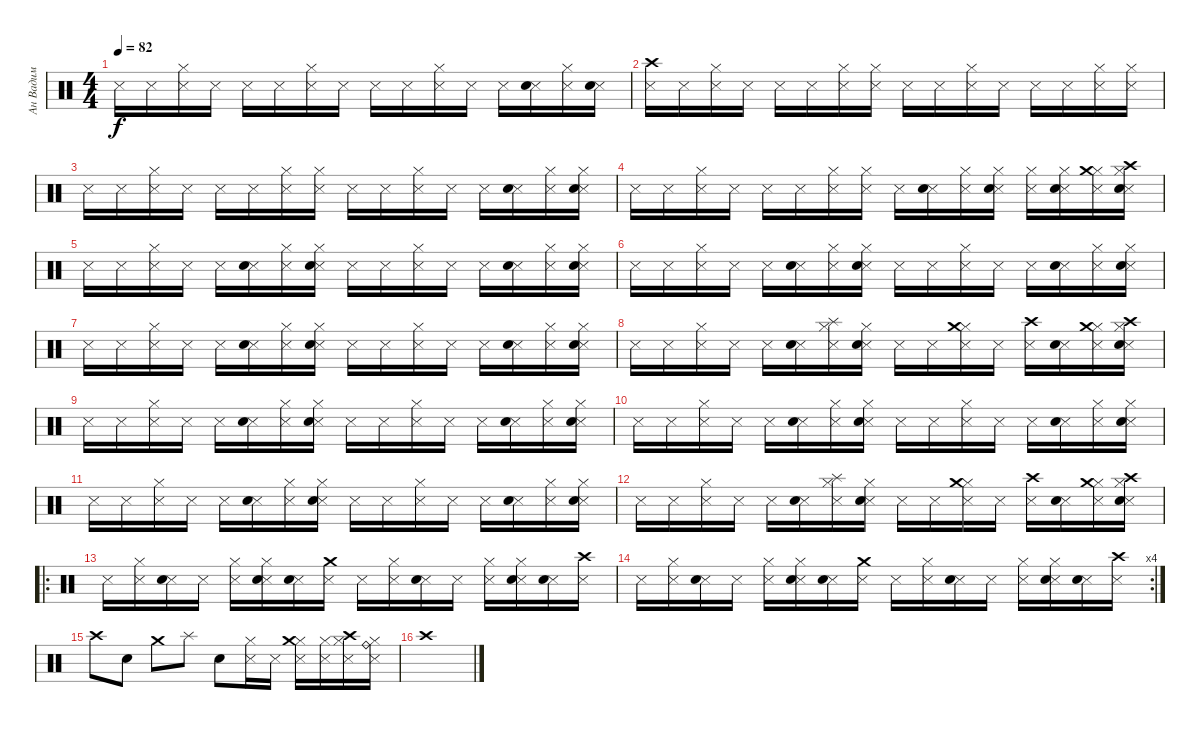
\track ("Ан Вадим" "Ан Вадим") {instrument percussion}
\staff {score}
\articulation defaults
\ts (4 4)
\tempo 82
\clef neutral
\ks c "Snare (side stick) 3".16{dy f} "Snare (side stick) 3".16
("Snare (side stick) 3" "Hi-Hat (closed)").16 "Snare (side stick) 3".16 "Snare (side stick) 3".16 "Snare (side stick) 3".16 ("Snare (side stick) 3" "Hi-Hat (closed)").16 "Snare (side stick) 3".16 "Snare (side stick) 3".16 "Snare (side stick) 3".16 ("Snare (side stick) 3" "Hi-Hat (closed)").16 "Snare (side stick) 3".16 "Snare (side stick) 3".16 ("Snare (side stick) 3" "Snare (hit) 2").16 ("Snare (side stick) 3" "Hi-Hat (closed)").16 ("Snare (side stick) 3" "Snare (hit) 2").16 |
("Snare (side stick) 3" "Crash high (hit)").16 "Snare (side stick) 3".16 ("Snare (side stick) 3" "Hi-Hat (closed)").16 "Snare (side stick) 3".16 "Snare (side stick) 3".16 "Snare (side stick) 3".16 ("Snare (side stick) 3" "Hi-Hat (closed)").16 ("Snare (side stick) 3" "Hi-Hat (closed)").16 "Snare (side stick) 3".16 "Snare (side stick) 3".16 ("Snare (side stick) 3" "Hi-Hat (closed)").16 "Snare (side stick) 3".16 "Snare (side stick) 3".16 "Snare (side stick) 3".16 ("Snare (side stick) 3" "Hi-Hat (closed)").16 ("Snare (side stick) 3" "Hi-Hat (closed)").16 |
"Snare (side stick) 3".16 "Snare (side stick) 3".16 ("Snare (side stick) 3" "Hi-Hat (closed)").16 "Snare (side stick) 3".16 "Snare (side stick) 3".16 "Snare (side stick) 3".16 ("Snare (side stick) 3" "Hi-Hat (closed)").16 ("Snare (side stick) 3" "Hi-Hat (closed)").16 "Snare (side stick) 3".16 "Snare (side stick) 3".16 ("Snare (side stick) 3" "Hi-Hat (closed)").16 "Snare (side stick) 3".16 "Snare (side stick) 3".16 ("Snare (side stick) 3" "Snare (hit) 2").16 ("Snare (side stick) 3" "Hi-Hat (closed)").16 ("Snare (side stick) 3" "Hi-Hat (closed)" "Snare (hit) 2").16 |
"Snare (side stick) 3".16 "Snare (side stick) 3".16 ("Snare (side stick) 3" "Hi-Hat (closed)").16 "Snare (side stick) 3".16 "Snare (side stick) 3".16 "Snare (side stick) 3".16 ("Snare (side stick) 3" "Hi-Hat (closed)").16 ("Snare (side stick) 3" "Hi-Hat (closed)").16 "Snare (side stick) 3".16 ("Snare (side stick) 3" "Snare (hit) 2").16 ("Snare (side stick) 3" "Hi-Hat (closed)").16 ("Snare (side stick) 3" "Hi-Hat (closed)" "Snare (hit) 2").16 ("Snare (side stick) 3" "Hi-Hat (closed)").16 ("Snare (side stick) 3" "Hi-Hat (closed)" "Snare (hit) 2").16 ("Snare (side stick) 3" "Hi-Hat (closed)" "Crash medium (hit)").16 ("Snare (side stick) 3" "Hi-Hat (closed)" "Snare (hit) 2" "Crash high (hit)").16 |
"Snare (side stick) 3".16 "Snare (side stick) 3".16 ("Snare (side stick) 3" "Hi-Hat (closed)").16 "Snare (side stick) 3".16 "Snare (side stick) 3".16 ("Snare (side stick) 3" "Snare (hit) 2").16 ("Snare (side stick) 3" "Hi-Hat (closed)").16 ("Snare (side stick) 3" "Hi-Hat (closed)" "Snare (hit) 2").16 "Snare (side stick) 3".16 "Snare (side stick) 3".16 ("Snare (side stick) 3" "Hi-Hat (closed)").16 "Snare (side stick) 3".16 "Snare (side stick) 3".16 ("Snare (side stick) 3" "Snare (hit) 2").16 ("Snare (side stick) 3" "Hi-Hat (closed)").16 ("Snare (side stick) 3" "Hi-Hat (closed)" "Snare (hit) 2").16 |
"Snare (side stick) 3".16 "Snare (side stick) 3".16 ("Snare (side stick) 3" "Hi-Hat (closed)").16 "Snare (side stick) 3".16 "Snare (side stick) 3".16 ("Snare (side stick) 3" "Snare (hit) 2").16 ("Snare (side stick) 3" "Hi-Hat (closed)").16 ("Snare (side stick) 3" "Hi-Hat (closed)" "Snare (hit) 2").16 "Snare (side stick) 3".16 "Snare (side stick) 3".16 ("Snare (side stick) 3" "Hi-Hat (closed)").16 "Snare (side stick) 3".16 "Snare (side stick) 3".16 ("Snare (side stick) 3" "Snare (hit) 2").16 ("Snare (side stick) 3" "Hi-Hat (closed)").16 ("Snare (side stick) 3" "Hi-Hat (closed)" "Snare (hit) 2").16 |
"Snare (side stick) 3".16 "Snare (side stick) 3".16 ("Snare (side stick) 3" "Hi-Hat (closed)").16 "Snare (side stick) 3".16 "Snare (side stick) 3".16 ("Snare (side stick) 3" "Snare (hit) 2").16 ("Snare (side stick) 3" "Hi-Hat (closed)").16 ("Snare (side stick) 3" "Hi-Hat (closed)" "Snare (hit) 2").16 "Snare (side stick) 3".16 "Snare (side stick) 3".16 ("Snare (side stick) 3" "Hi-Hat (closed)").16 "Snare (side stick) 3".16 "Snare (side stick) 3".16 ("Snare (side stick) 3" "Snare (hit) 2").16 ("Snare (side stick) 3" "Hi-Hat (closed)").16 ("Snare (side stick) 3" "Hi-Hat (closed)" "Snare (hit) 2").16 |
"Snare (side stick) 3".16 "Snare (side stick) 3".16 ("Snare (side stick) 3" "Hi-Hat (closed)").16 "Snare (side stick) 3".16 "Snare (side stick) 3".16 ("Snare (side stick) 3" "Snare (hit) 2").16 ("Snare (side stick) 3" "Hi-Hat (closed)" "Splash (hit)").16 ("Snare (side stick) 3" "Hi-Hat (closed)" "Snare (hit) 2").16 "Snare (side stick) 3".16 "Snare (side stick) 3".16 ("Snare (side stick) 3" "Hi-Hat (closed)" "Crash medium (hit)").16 "Snare (side stick) 3".16 ("Snare (side stick) 3" "Crash high (hit)").16 ("Snare (side stick) 3" "Snare (hit) 2").16 ("Snare (side stick) 3" "Hi-Hat (closed)" "Crash medium (hit)").16 ("Snare (side stick) 3" "Hi-Hat (closed)" "Snare (hit) 2" "Crash high (hit)").16 |
"Snare (side stick) 3".16 "Snare (side stick) 3".16 ("Snare (side stick) 3" "Hi-Hat (closed)").16 "Snare (side stick) 3".16 "Snare (side stick) 3".16 ("Snare (side stick) 3" "Snare (hit) 2").16 ("Snare (side stick) 3" "Hi-Hat (closed)").16 ("Snare (side stick) 3" "Hi-Hat (closed)" "Snare (hit) 2").16 "Snare (side stick) 3".16 "Snare (side stick) 3".16 ("Snare (side stick) 3" "Hi-Hat (closed)").16 "Snare (side stick) 3".16 "Snare (side stick) 3".16 ("Snare (side stick) 3" "Snare (hit) 2").16 ("Snare (side stick) 3" "Hi-Hat (closed)").16 ("Snare (side stick) 3" "Hi-Hat (closed)" "Snare (hit) 2").16 |
"Snare (side stick) 3".16 "Snare (side stick) 3".16 ("Snare (side stick) 3" "Hi-Hat (closed)").16 "Snare (side stick) 3".16 "Snare (side stick) 3".16 ("Snare (side stick) 3" "Snare (hit) 2").16 ("Snare (side stick) 3" "Hi-Hat (closed)").16 ("Snare (side stick) 3" "Hi-Hat (closed)" "Snare (hit) 2").16 "Snare (side stick) 3".16 "Snare (side stick) 3".16 ("Snare (side stick) 3" "Hi-Hat (closed)").16 "Snare (side stick) 3".16 "Snare (side stick) 3".16 ("Snare (side stick) 3" "Snare (hit) 2").16 ("Snare (side stick) 3" "Hi-Hat (closed)").16 ("Snare (side stick) 3" "Hi-Hat (closed)" "Snare (hit) 2").16 |
"Snare (side stick) 3".16 "Snare (side stick) 3".16 ("Snare (side stick) 3" "Hi-Hat (closed)").16 "Snare (side stick) 3".16 "Snare (side stick) 3".16 ("Snare (side stick) 3" "Snare (hit) 2").16 ("Snare (side stick) 3" "Hi-Hat (closed)").16 ("Snare (side stick) 3" "Hi-Hat (closed)" "Snare (hit) 2").16 "Snare (side stick) 3".16 "Snare (side stick) 3".16 ("Snare (side stick) 3" "Hi-Hat (closed)").16 "Snare (side stick) 3".16 "Snare (side stick) 3".16 ("Snare (side stick) 3" "Snare (hit) 2").16 ("Snare (side stick) 3" "Hi-Hat (closed)").16 ("Snare (side stick) 3" "Hi-Hat (closed)" "Snare (hit) 2").16 |
"Snare (side stick) 3".16 "Snare (side stick) 3".16 ("Snare (side stick) 3" "Hi-Hat (closed)").16 "Snare (side stick) 3".16 "Snare (side stick) 3".16 ("Snare (side stick) 3" "Snare (hit) 2").16 ("Snare (side stick) 3" "Hi-Hat (closed)" "Splash (hit)").16 ("Snare (side stick) 3" "Hi-Hat (closed)" "Snare (hit) 2").16 "Snare (side stick) 3".16 "Snare (side stick) 3".16 ("Snare (side stick) 3" "Hi-Hat (closed)" "Crash medium (hit)").16 "Snare (side stick) 3".16 ("Snare (side stick) 3" "Crash high (hit)").16 ("Snare (side stick) 3" "Snare (hit) 2").16 ("Snare (side stick) 3" "Hi-Hat (closed)" "Crash medium (hit)").16 ("Snare (side stick) 3" "Hi-Hat (closed)" "Snare (hit) 2" "Crash high (hit)").16 |
\ro "Snare (side stick) 3".16
("Snare (side stick) 3" "Hi-Hat (closed)").16 ("Snare (side stick) 3" "Snare (hit) 2").16 "Snare (side stick) 3".16 ("Snare (side stick) 3" "Hi-Hat (closed)").16 ("Snare (side stick) 3" "Hi-Hat (closed)" "Snare (hit) 2").16 ("Snare (side stick) 3" "Snare (hit) 2").16 ("Snare (side stick) 3" "Crash medium (hit)").16 "Snare (side stick) 3".16 ("Snare (side stick) 3" "Hi-Hat (closed)").16 ("Snare (side stick) 3" "Snare (hit) 2").16 "Snare (side stick) 3".16 ("Snare (side stick) 3" "Hi-Hat (closed)").16 ("Snare (side stick) 3" "Hi-Hat (closed)" "Snare (hit) 2").16 ("Snare (side stick) 3" "Snare (hit) 2").16 ("Snare (side stick) 3" "Crash high (hit)").16 |
\rc 4 "Snare (side stick) 3".16
("Snare (side stick) 3" "Hi-Hat (closed)").16 ("Snare (side stick) 3" "Snare (hit) 2").16 "Snare (side stick) 3".16 ("Snare (side stick) 3" "Hi-Hat (closed)").16 ("Snare (side stick) 3" "Hi-Hat (closed)" "Snare (hit) 2").16 ("Snare (side stick) 3" "Snare (hit) 2").16 ("Snare (side stick) 3" "Crash medium (hit)").16 "Snare (side stick) 3".16 ("Snare (side stick) 3" "Hi-Hat (closed)").16 ("Snare (side stick) 3" "Snare (hit) 2").16 "Snare (side stick) 3".16 ("Snare (side stick) 3" "Hi-Hat (closed)").16 ("Snare (side stick) 3" "Hi-Hat (closed)" "Snare (hit) 2").16 ("Snare (side stick) 3" "Snare (hit) 2").16 ("Snare (side stick) 3" "Crash high (hit)").16 |
"Crash high (hit)".8 "Snare (hit) 2".8 "Crash medium (hit)".8 "Splash (hit)".8 "Snare (hit) 2".8 ("Snare (side stick) 3" "Hi-Hat (closed)").16 "Snare (side stick) 3".16 ("Snare (side stick) 3" "Hi-Hat (closed)" "Crash medium (hit)").16 ("Snare (side stick) 3" "Hi-Hat (closed)").16 ("Snare (side stick) 3" "Hi-Hat (closed)" "Crash high (hit)").16 ("Snare (side stick) 3" "Hi-Hat (closed)" "Ride (bell)").16 |
"Crash high (hit)".1
